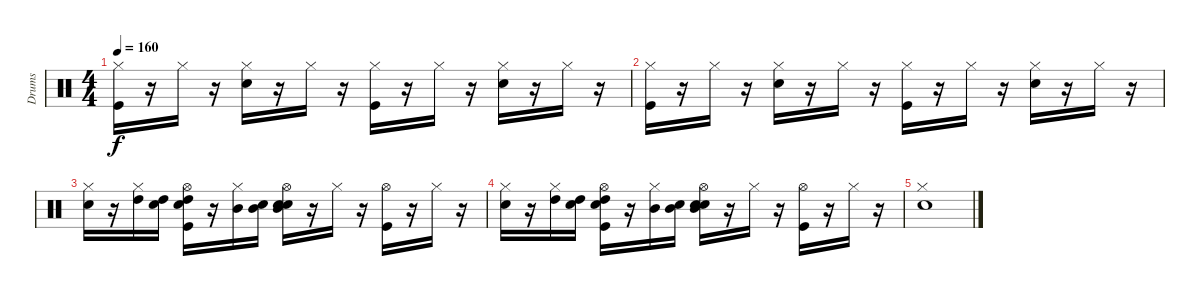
\track ("Drums               " "Drums     ") {instrument percussion}
\staff {score}
\articulation defaults
\ts (4 4)
\tempo 160
\clef neutral
\ks c
("Kick (hit)" "Hi-Hat (closed)").16{dy f} r.16 "Hi-Hat (closed)".16 r.16 ("Snare (hit) 2" "Hi-Hat (closed)").16 r.16 "Hi-Hat (closed)".16 r.16 ("Kick (hit)" "Hi-Hat (closed)").16 r.16 "Hi-Hat (closed)".16 r.16 ("Snare (hit) 2" "Hi-Hat (closed)").16 r.16 "Hi-Hat (closed)".16 r.16 |
("Kick (hit)" "Hi-Hat (closed)").16 r.16 "Hi-Hat (closed)".16 r.16 ("Snare (hit) 2" "Hi-Hat (closed)").16 r.16 "Hi-Hat (closed)".16 r.16 ("Kick (hit)" "Hi-Hat (closed)").16 r.16 "Hi-Hat (closed)".16 r.16 ("Snare (hit) 2" "Hi-Hat (closed)").16 r.16 "Hi-Hat (closed)".16 r.16 |
("Snare (hit) 2" "Hi-Hat (closed)").16 r.16 ("Hi-Hat (closed)" "High Tom (hit)").16 ("Snare (hit)" "High Tom (hit)").16 ("Snare (hit)" "Kick (hit)" "High Tom (hit)" "Hi-Hat (open)").16 r.16 ("Hi-Hat (closed)" "Mid Tom (hit)").16 ("Snare (hit)" "Mid Tom (hit)").16 ("Snare (hit)" "Snare (hit) 2" "Mid Tom (hit)" "Hi-Hat (open)").16 r.16 "Hi-Hat (closed)".16 r.16 ("Kick (hit)" "Hi-Hat (open)").16 r.16 "Hi-Hat (closed)".16 r.16 |
("Snare (hit) 2" "Hi-Hat (closed)").16 r.16 ("Hi-Hat (closed)" "High Tom (hit)").16 ("Snare (hit)" "High Tom (hit)").16 ("Snare (hit)" "Kick (hit)" "High Tom (hit)" "Hi-Hat (open)").16 r.16 ("Hi-Hat (closed)" "Mid Tom (hit)").16 ("Snare (hit)" "Mid Tom (hit)").16 ("Snare (hit)" "Snare (hit) 2" "Mid Tom (hit)" "Hi-Hat (open)").16 r.16 "Hi-Hat (closed)".16 r.16 ("Kick (hit)" "Hi-Hat (open)").16 r.16 "Hi-Hat (closed)".16 r.16 |
("Snare (hit) 2" "Hi-Hat (closed)").1
